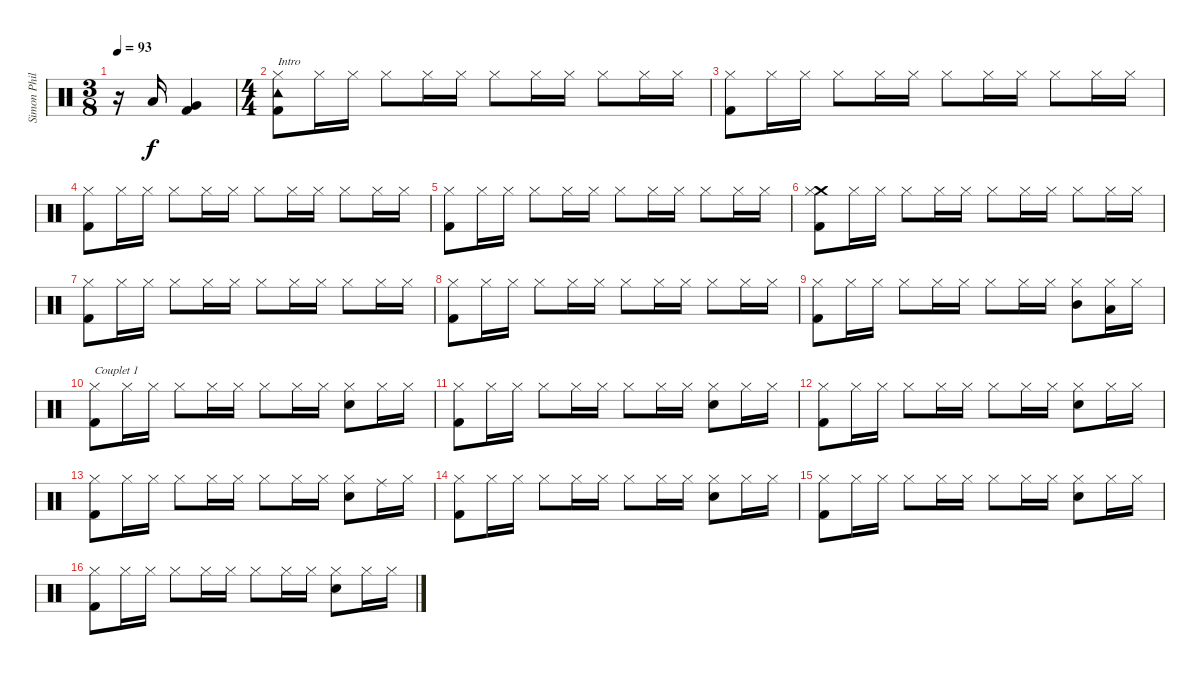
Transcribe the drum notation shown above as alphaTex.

\track ("Simon Phillips" "Simon Phil") {instrument percussion}
\staff {score}
\articulation defaults
\ts (3 8)
\tempo 93
\clef neutral
\ks c
r.16{dy f} "Low Tom (hit)".16 ("Very Low Tom (hit)" "Kick (hit) 2").4 |
\ts (4 4)
("Tambourine (hit)" "Hi-Hat (closed)" "Kick (hit) 2").8{txt "Intro"} "Hi-Hat (closed)".16 "Hi-Hat (closed)".16 "Hi-Hat (closed)".8 "Hi-Hat (closed)".16 "Hi-Hat (closed)".16 "Hi-Hat (closed)".8 "Hi-Hat (closed)".16 "Hi-Hat (closed)".16 "Hi-Hat (closed)".8 "Hi-Hat (closed)".16 "Hi-Hat (closed)".16 |
("Hi-Hat (closed)" "Kick (hit) 2").8 "Hi-Hat (closed)".16 "Hi-Hat (closed)".16 "Hi-Hat (closed)".8 "Hi-Hat (closed)".16 "Hi-Hat (closed)".16 "Hi-Hat (closed)".8 "Hi-Hat (closed)".16 "Hi-Hat (closed)".16 "Hi-Hat (closed)".8 "Hi-Hat (closed)".16 "Hi-Hat (closed)".16 |
("Hi-Hat (closed)" "Kick (hit) 2").8 "Hi-Hat (closed)".16 "Hi-Hat (closed)".16 "Hi-Hat (closed)".8 "Hi-Hat (closed)".16 "Hi-Hat (closed)".16 "Hi-Hat (closed)".8 "Hi-Hat (closed)".16 "Hi-Hat (closed)".16 "Hi-Hat (closed)".8 "Hi-Hat (closed)".16 "Hi-Hat (closed)".16 |
("Hi-Hat (closed)" "Kick (hit) 2").8 "Hi-Hat (closed)".16 "Hi-Hat (closed)".16 "Hi-Hat (closed)".8 "Hi-Hat (closed)".16 "Hi-Hat (closed)".16 "Hi-Hat (closed)".8 "Hi-Hat (closed)".16 "Hi-Hat (closed)".16 "Hi-Hat (closed)".8 "Hi-Hat (closed)".16 "Hi-Hat (closed)".16 |
("Crash medium (hit)" "Hi-Hat (closed)" "Kick (hit) 2").8 "Hi-Hat (closed)".16 "Hi-Hat (closed)".16 "Hi-Hat (closed)".8 "Hi-Hat (closed)".16 "Hi-Hat (closed)".16 "Hi-Hat (closed)".8 "Hi-Hat (closed)".16 "Hi-Hat (closed)".16 "Hi-Hat (closed)".8 "Hi-Hat (closed)".16 "Hi-Hat (closed)".16 |
("Hi-Hat (closed)" "Kick (hit) 2").8 "Hi-Hat (closed)".16 "Hi-Hat (closed)".16 "Hi-Hat (closed)".8 "Hi-Hat (closed)".16 "Hi-Hat (closed)".16 "Hi-Hat (closed)".8 "Hi-Hat (closed)".16 "Hi-Hat (closed)".16 "Hi-Hat (closed)".8 "Hi-Hat (closed)".16 "Hi-Hat (closed)".16 |
("Hi-Hat (closed)" "Kick (hit) 2").8 "Hi-Hat (closed)".16 "Hi-Hat (closed)".16 "Hi-Hat (closed)".8 "Hi-Hat (closed)".16 "Hi-Hat (closed)".16 "Hi-Hat (closed)".8 "Hi-Hat (closed)".16 "Hi-Hat (closed)".16 "Hi-Hat (closed)".8 "Hi-Hat (closed)".16 "Hi-Hat (closed)".16 |
("Hi-Hat (closed)" "Kick (hit) 2").8 "Hi-Hat (closed)".16 "Hi-Hat (closed)".16 "Hi-Hat (closed)".8 "Hi-Hat (closed)".16 "Hi-Hat (closed)".16 "Hi-Hat (closed)".8 "Hi-Hat (closed)".16 "Hi-Hat (closed)".16 ("Mid Tom (hit)" "Hi-Hat (closed)").8 ("Low Tom (hit)" "Hi-Hat (closed)").16 "Hi-Hat (closed)".16 |
("Hi-Hat (closed)" "Kick (hit) 2").8{txt "Couplet 1"} "Hi-Hat (closed)".16 "Hi-Hat (closed)".16 "Hi-Hat (closed)".8 "Hi-Hat (closed)".16 "Hi-Hat (closed)".16 "Hi-Hat (closed)".8 "Hi-Hat (closed)".16 "Hi-Hat (closed)".16 ("Electric Snare (hit)" "Hi-Hat (closed)").8 "Hi-Hat (closed)".16 "Hi-Hat (closed)".16 |
("Hi-Hat (closed)" "Kick (hit) 2").8 "Hi-Hat (closed)".16 "Hi-Hat (closed)".16 "Hi-Hat (closed)".8 "Hi-Hat (closed)".16 "Hi-Hat (closed)".16 "Hi-Hat (closed)".8 "Hi-Hat (closed)".16 "Hi-Hat (closed)".16 ("Electric Snare (hit)" "Hi-Hat (closed)").8 "Hi-Hat (closed)".16 "Hi-Hat (closed)".16 |
("Hi-Hat (closed)" "Kick (hit) 2").8 "Hi-Hat (closed)".16 "Hi-Hat (closed)".16 "Hi-Hat (closed)".8 "Hi-Hat (closed)".16 "Hi-Hat (closed)".16 "Hi-Hat (closed)".8 "Hi-Hat (closed)".16 "Hi-Hat (closed)".16 ("Electric Snare (hit)" "Hi-Hat (closed)").8 "Hi-Hat (closed)".16 "Hi-Hat (closed)".16 |
("Hi-Hat (closed)" "Kick (hit) 2").8 "Hi-Hat (closed)".16 "Hi-Hat (closed)".16 "Hi-Hat (closed)".8 "Hi-Hat (closed)".16 "Hi-Hat (closed)".16 "Hi-Hat (closed)".8 "Hi-Hat (closed)".16 "Hi-Hat (closed)".16 ("Electric Snare (hit)" "Hi-Hat (closed)").8 "Ride (middle)".16 "Hi-Hat (closed)".16 |
("Hi-Hat (closed)" "Kick (hit) 2").8 "Hi-Hat (closed)".16 "Hi-Hat (closed)".16 "Hi-Hat (closed)".8 "Hi-Hat (closed)".16 "Hi-Hat (closed)".16 "Hi-Hat (closed)".8 "Hi-Hat (closed)".16 "Hi-Hat (closed)".16 ("Electric Snare (hit)" "Hi-Hat (closed)").8 "Hi-Hat (closed)".16 "Hi-Hat (closed)".16 |
("Hi-Hat (closed)" "Kick (hit) 2").8 "Hi-Hat (closed)".16 "Hi-Hat (closed)".16 "Hi-Hat (closed)".8 "Hi-Hat (closed)".16 "Hi-Hat (closed)".16 "Hi-Hat (closed)".8 "Hi-Hat (closed)".16 "Hi-Hat (closed)".16 ("Electric Snare (hit)" "Hi-Hat (closed)").8 "Hi-Hat (closed)".16 "Hi-Hat (closed)".16 |
("Hi-Hat (closed)" "Kick (hit) 2").8 "Hi-Hat (closed)".16 "Hi-Hat (closed)".16 "Hi-Hat (closed)".8 "Hi-Hat (closed)".16 "Hi-Hat (closed)".16 "Hi-Hat (closed)".8 "Hi-Hat (closed)".16 "Hi-Hat (closed)".16 ("Electric Snare (hit)" "Hi-Hat (closed)").8 "Hi-Hat (closed)".16 "Hi-Hat (closed)".16
